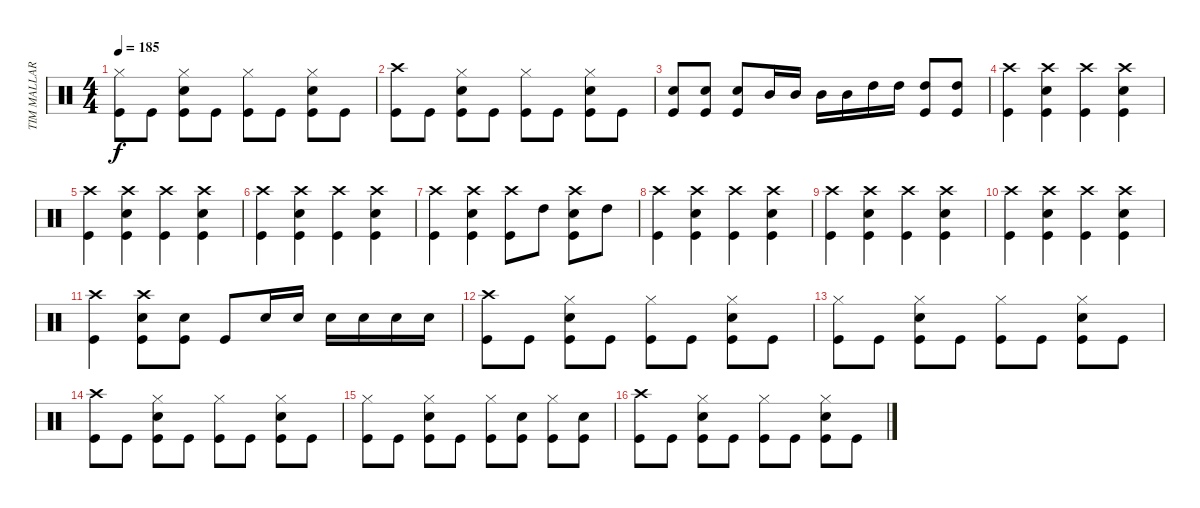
\track ("TIM MALLARE - drums" "TIM MALLAR") {instrument percussion}
\staff {score}
\articulation defaults
\ts (4 4)
\tempo 185
\clef neutral
\ks c
("Hi-Hat (closed)" "Kick (hit)").8{dy f} "Kick (hit)".8 ("Hi-Hat (closed)" "Electric Snare (hit)" "Kick (hit)").8 "Kick (hit)".8 ("Hi-Hat (closed)" "Kick (hit)").8 "Kick (hit)".8 ("Hi-Hat (closed)" "Electric Snare (hit)" "Kick (hit)").8 "Kick (hit)".8 |
("Crash high (hit)" "Kick (hit)").8 "Kick (hit)".8 ("Hi-Hat (closed)" "Electric Snare (hit)" "Kick (hit)").8 "Kick (hit)".8 ("Hi-Hat (closed)" "Kick (hit)").8 "Kick (hit)".8 ("Hi-Hat (closed)" "Electric Snare (hit)" "Kick (hit)").8 "Kick (hit)".8 |
("Electric Snare (hit)" "Kick (hit)").8 ("Electric Snare (hit)" "Kick (hit)").8 ("Electric Snare (hit)" "Kick (hit)").8 "Mid Tom (hit)".16 "Mid Tom (hit)".16 "Mid Tom (hit)".16 "Mid Tom (hit)".16 "High Tom (hit)".16 "High Tom (hit)".16 ("High Tom (hit)" "Kick (hit)").8 ("High Tom (hit)" "Kick (hit)").8 |
("Crash high (hit)" "Kick (hit)").4 ("Crash high (hit)" "Electric Snare (hit)" "Kick (hit)").4 ("Crash high (hit)" "Kick (hit)").4 ("Crash high (hit)" "Electric Snare (hit)" "Kick (hit)").4 |
("Crash high (hit)" "Kick (hit)").4 ("Electric Snare (hit)" "Crash high (hit)" "Kick (hit)").4 ("Crash high (hit)" "Kick (hit)").4 ("Electric Snare (hit)" "Crash high (hit)" "Kick (hit)").4 |
("Crash high (hit)" "Kick (hit)").4 ("Crash high (hit)" "Electric Snare (hit)" "Kick (hit)").4 ("Crash high (hit)" "Kick (hit)").4 ("Crash high (hit)" "Electric Snare (hit)" "Kick (hit)").4 |
("Crash high (hit)" "Kick (hit)").4 ("Electric Snare (hit)" "Crash high (hit)" "Kick (hit)").4 ("Crash high (hit)" "Kick (hit)").8 "High Tom (hit)".8 ("Electric Snare (hit)" "Crash high (hit)" "Kick (hit)").8 "High Tom (hit)".8 |
("Crash high (hit)" "Kick (hit)").4 ("Crash high (hit)" "Electric Snare (hit)" "Kick (hit)").4 ("Crash high (hit)" "Kick (hit)").4 ("Crash high (hit)" "Electric Snare (hit)" "Kick (hit)").4 |
("Crash high (hit)" "Kick (hit)").4 ("Electric Snare (hit)" "Crash high (hit)" "Kick (hit)").4 ("Crash high (hit)" "Kick (hit)").4 ("Electric Snare (hit)" "Crash high (hit)" "Kick (hit)").4 |
("Crash high (hit)" "Kick (hit)").4 ("Electric Snare (hit)" "Crash high (hit)" "Kick (hit)").4 ("Crash high (hit)" "Kick (hit)").4 ("Electric Snare (hit)" "Crash high (hit)" "Kick (hit)").4 |
("Crash high (hit)" "Kick (hit)").4 ("Electric Snare (hit)" "Crash high (hit)" "Kick (hit)").8 ("Electric Snare (hit)" "Kick (hit)").8 "Kick (hit)".8 "Electric Snare (hit)".16 "Electric Snare (hit)".16 "Electric Snare (hit)".16 "Electric Snare (hit)".16 "Electric Snare (hit)".16 "Electric Snare (hit)".16 |
("Crash high (hit)" "Kick (hit)").8 "Kick (hit)".8 ("Hi-Hat (closed)" "Electric Snare (hit)" "Kick (hit)").8 "Kick (hit)".8 ("Hi-Hat (closed)" "Kick (hit)").8 "Kick (hit)".8 ("Hi-Hat (closed)" "Electric Snare (hit)" "Kick (hit)").8 "Kick (hit)".8 |
("Hi-Hat (closed)" "Kick (hit)").8 "Kick (hit)".8 ("Hi-Hat (closed)" "Electric Snare (hit)" "Kick (hit)").8 "Kick (hit)".8 ("Hi-Hat (closed)" "Kick (hit)").8 "Kick (hit)".8 ("Hi-Hat (closed)" "Electric Snare (hit)" "Kick (hit)").8 "Kick (hit)".8 |
("Crash high (hit)" "Kick (hit)").8 "Kick (hit)".8 ("Hi-Hat (closed)" "Electric Snare (hit)" "Kick (hit)").8 "Kick (hit)".8 ("Hi-Hat (closed)" "Kick (hit)").8 "Kick (hit)".8 ("Hi-Hat (closed)" "Electric Snare (hit)" "Kick (hit)").8 "Kick (hit)".8 |
("Hi-Hat (closed)" "Kick (hit)").8 "Kick (hit)".8 ("Hi-Hat (closed)" "Electric Snare (hit)" "Kick (hit)").8 "Kick (hit)".8 ("Hi-Hat (closed)" "Kick (hit)").8 ("Electric Snare (hit)" "Kick (hit)").8 ("Hi-Hat (closed)" "Kick (hit)").8 ("Electric Snare (hit)" "Kick (hit)").8 |
("Crash high (hit)" "Kick (hit)").8 "Kick (hit)".8 ("Hi-Hat (closed)" "Electric Snare (hit)" "Kick (hit)").8 "Kick (hit)".8 ("Hi-Hat (closed)" "Kick (hit)").8 "Kick (hit)".8 ("Hi-Hat (closed)" "Electric Snare (hit)" "Kick (hit)").8 "Kick (hit)".8
